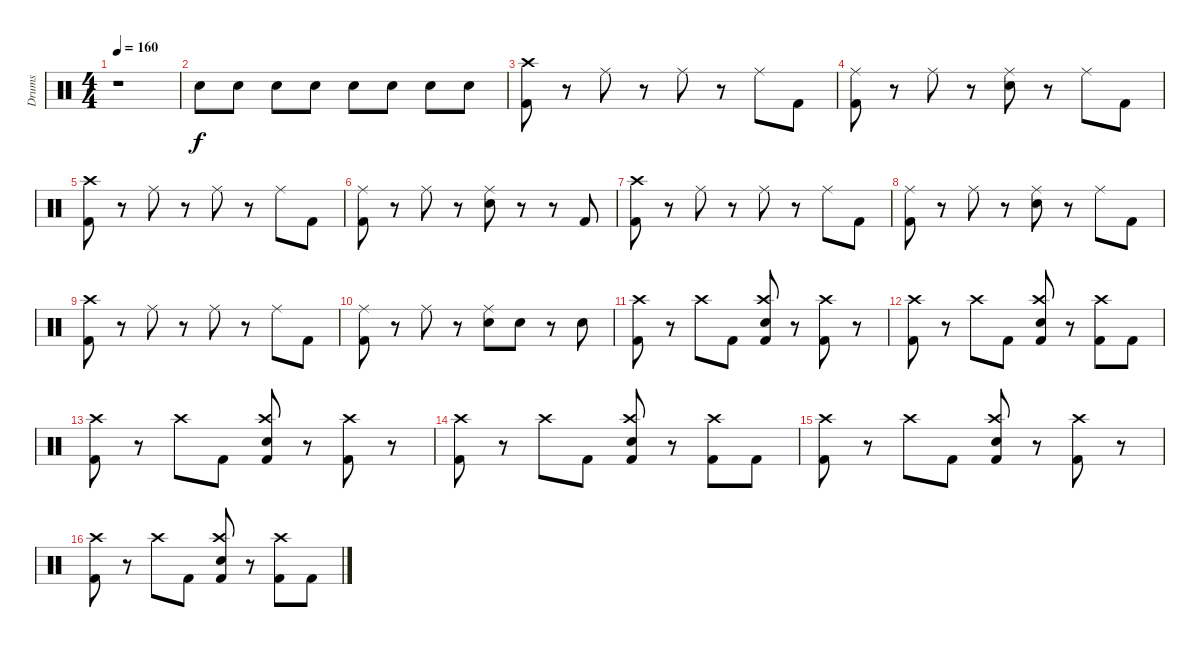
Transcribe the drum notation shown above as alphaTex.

\track ("Drums" "Drums") {instrument percussion}
\staff {score}
\articulation defaults
\ts (4 4)
\tempo 160
\clef neutral
\ks c
r.1{dy f} |
"Electric Snare (hit)".8{volume 10} "Electric Snare (hit)".8 "Electric Snare (hit)".8 "Electric Snare (hit)".8 "Electric Snare (hit)".8 "Electric Snare (hit)".8 "Electric Snare (hit)".8 "Electric Snare (hit)".8 |
("Crash high (hit)" "Kick (hit) 2").8 r.8 "Ride (middle)".8 r.8 "Ride (middle)".8 r.8 "Ride (middle)".8 "Kick (hit) 2".8 |
("Ride (middle)" "Kick (hit) 2").8 r.8 "Ride (middle)".8 r.8 ("Ride (middle)" "Electric Snare (hit)").8 r.8 "Ride (middle)".8 "Kick (hit) 2".8 |
("Crash high (hit)" "Kick (hit) 2").8 r.8 "Ride (middle)".8 r.8 "Ride (middle)".8 r.8 "Ride (middle)".8 "Kick (hit) 2".8 |
("Ride (middle)" "Kick (hit) 2").8 r.8 "Ride (middle)".8 r.8 ("Ride (middle)" "Electric Snare (hit)").8 r.8 r.8 "Kick (hit) 2".8 |
("Crash high (hit)" "Kick (hit) 2").8 r.8 "Ride (middle)".8 r.8 "Ride (middle)".8 r.8 "Ride (middle)".8 "Kick (hit) 2".8 |
("Ride (middle)" "Kick (hit) 2").8 r.8 "Ride (middle)".8 r.8 ("Ride (middle)" "Electric Snare (hit)").8 r.8 "Ride (middle)".8 "Kick (hit) 2".8 |
("Crash high (hit)" "Kick (hit) 2").8 r.8 "Ride (middle)".8 r.8 "Ride (middle)".8 r.8 "Ride (middle)".8 "Kick (hit) 2".8 |
("Ride (middle)" "Kick (hit) 2").8 r.8 "Ride (middle)".8 r.8 ("Ride (middle)" "Electric Snare (hit)").8 "Electric Snare (hit)".8 r.8 "Electric Snare (hit)".8 |
("Crash high (hit)" "Kick (hit) 2").8 r.8 "Crash high (hit)".8 "Kick (hit) 2".8 ("Crash high (hit)" "Electric Snare (hit)" "Kick (hit) 2").8 r.8 ("Crash high (hit)" "Kick (hit) 2").8 r.8 |
("Crash high (hit)" "Kick (hit) 2").8 r.8 "Crash high (hit)".8 "Kick (hit) 2".8 ("Crash high (hit)" "Electric Snare (hit)" "Kick (hit) 2").8 r.8 ("Crash high (hit)" "Kick (hit) 2").8 "Kick (hit) 2".8 |
("Crash high (hit)" "Kick (hit) 2").8 r.8 "Crash high (hit)".8 "Kick (hit) 2".8 ("Crash high (hit)" "Electric Snare (hit)" "Kick (hit) 2").8 r.8 ("Crash high (hit)" "Kick (hit) 2").8 r.8 |
("Crash high (hit)" "Kick (hit) 2").8 r.8 "Crash high (hit)".8 "Kick (hit) 2".8 ("Crash high (hit)" "Electric Snare (hit)" "Kick (hit) 2").8 r.8 ("Crash high (hit)" "Kick (hit) 2").8 "Kick (hit) 2".8 |
("Crash high (hit)" "Kick (hit) 2").8 r.8 "Crash high (hit)".8 "Kick (hit) 2".8 ("Crash high (hit)" "Electric Snare (hit)" "Kick (hit) 2").8 r.8 ("Crash high (hit)" "Kick (hit) 2").8 r.8 |
("Crash high (hit)" "Kick (hit) 2").8 r.8 "Crash high (hit)".8 "Kick (hit) 2".8 ("Crash high (hit)" "Electric Snare (hit)" "Kick (hit) 2").8 r.8 ("Crash high (hit)" "Kick (hit) 2").8 "Kick (hit) 2".8
